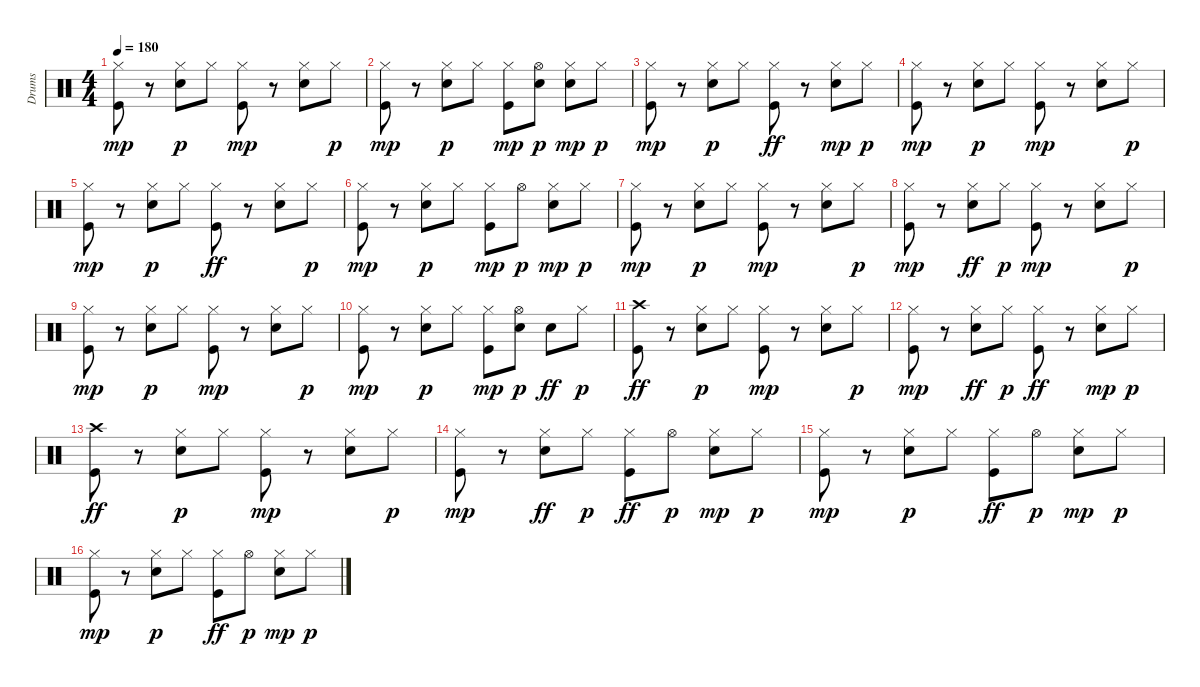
\track ("Drums" "Drums") {instrument percussion}
\staff {score}
\articulation defaults
\ts (4 4)
\tempo 180
\clef neutral
\ks c
("Kick (hit)" "Hi-Hat (closed)").8{dy mp} r.8 ("Snare (hit) 2" "Hi-Hat (closed)").8{dy p} "Hi-Hat (closed)".8 ("Kick (hit)" "Hi-Hat (closed)").8{dy mp} r.8 ("Snare (hit) 2" "Hi-Hat (closed)").8 "Hi-Hat (closed)".8{dy p} |
("Kick (hit)" "Hi-Hat (closed)").8{dy mp} r.8 ("Snare (hit) 2" "Hi-Hat (closed)").8{dy p} "Hi-Hat (closed)".8 ("Kick (hit)" "Hi-Hat (closed)").8{dy mp} ("Hi-Hat (open)" "Snare (hit) 2").8{dy p} ("Snare (hit) 2" "Hi-Hat (closed)").8{dy mp} "Hi-Hat (closed)".8{dy p} |
("Kick (hit)" "Hi-Hat (closed)").8{dy mp} r.8 ("Snare (hit) 2" "Hi-Hat (closed)").8{dy p} "Hi-Hat (closed)".8 ("Hi-Hat (closed)" "Kick (hit)").8{dy ff} r.8 ("Snare (hit) 2" "Hi-Hat (closed)").8{dy mp} "Hi-Hat (closed)".8{dy p} |
("Kick (hit)" "Hi-Hat (closed)").8{dy mp} r.8 ("Snare (hit) 2" "Hi-Hat (closed)").8{dy p} "Hi-Hat (closed)".8 ("Kick (hit)" "Hi-Hat (closed)").8{dy mp} r.8 ("Snare (hit) 2" "Hi-Hat (closed)").8 "Hi-Hat (closed)".8{dy p} |
("Kick (hit)" "Hi-Hat (closed)").8{dy mp} r.8 ("Snare (hit) 2" "Hi-Hat (closed)").8{dy p} "Hi-Hat (closed)".8 ("Hi-Hat (closed)" "Kick (hit)").8{dy ff} r.8 ("Hi-Hat (closed)" "Snare (hit) 2").8 "Hi-Hat (closed)".8{dy p} |
("Kick (hit)" "Hi-Hat (closed)").8{dy mp} r.8 ("Snare (hit) 2" "Hi-Hat (closed)").8{dy p} "Hi-Hat (closed)".8 ("Kick (hit)" "Hi-Hat (closed)").8{dy mp} "Hi-Hat (open)".8{dy p} ("Snare (hit) 2" "Hi-Hat (closed)").8{dy mp} "Hi-Hat (closed)".8{dy p} |
("Kick (hit)" "Hi-Hat (closed)").8{dy mp} r.8 ("Snare (hit) 2" "Hi-Hat (closed)").8{dy p} "Hi-Hat (closed)".8 ("Kick (hit)" "Hi-Hat (closed)").8{dy mp} r.8 ("Snare (hit) 2" "Hi-Hat (closed)").8 "Hi-Hat (closed)".8{dy p} |
("Kick (hit)" "Hi-Hat (closed)").8{dy mp} r.8 ("Hi-Hat (closed)" "Snare (hit) 2").8{dy ff} "Hi-Hat (closed)".8{dy p} ("Kick (hit)" "Hi-Hat (closed)").8{dy mp} r.8 ("Snare (hit) 2" "Hi-Hat (closed)").8 "Hi-Hat (closed)".8{dy p} |
("Kick (hit)" "Hi-Hat (closed)").8{dy mp} r.8 ("Snare (hit) 2" "Hi-Hat (closed)").8{dy p} "Hi-Hat (closed)".8 ("Kick (hit)" "Hi-Hat (closed)").8{dy mp} r.8 ("Snare (hit) 2" "Hi-Hat (closed)").8 "Hi-Hat (closed)".8{dy p} |
("Kick (hit)" "Hi-Hat (closed)").8{dy mp} r.8 ("Snare (hit) 2" "Hi-Hat (closed)").8{dy p} "Hi-Hat (closed)".8 ("Kick (hit)" "Hi-Hat (closed)").8{dy mp} ("Hi-Hat (open)" "Snare (hit) 2").8{dy p} "Snare (hit) 2".8{dy ff} "Hi-Hat (closed)".8{dy p} |
("Crash high (hit)" "Kick (hit)").8{dy ff} r.8 ("Snare (hit) 2" "Hi-Hat (closed)").8{dy p} "Hi-Hat (closed)".8 ("Kick (hit)" "Hi-Hat (closed)").8{dy mp} r.8 ("Snare (hit) 2" "Hi-Hat (closed)").8 "Hi-Hat (closed)".8{dy p} |
("Kick (hit)" "Hi-Hat (closed)").8{dy mp} r.8 ("Hi-Hat (closed)" "Snare (hit) 2").8{dy ff} "Hi-Hat (closed)".8{dy p} ("Hi-Hat (closed)" "Kick (hit)").8{dy ff} r.8 ("Snare (hit) 2" "Hi-Hat (closed)").8{dy mp} "Hi-Hat (closed)".8{dy p} |
("Crash high (hit)" "Kick (hit)").8{dy ff} r.8 ("Snare (hit) 2" "Hi-Hat (closed)").8{dy p} "Hi-Hat (closed)".8 ("Kick (hit)" "Hi-Hat (closed)").8{dy mp} r.8 ("Snare (hit) 2" "Hi-Hat (closed)").8 "Hi-Hat (closed)".8{dy p} |
("Kick (hit)" "Hi-Hat (closed)").8{dy mp} r.8 ("Hi-Hat (closed)" "Snare (hit) 2").8{dy ff} "Hi-Hat (closed)".8{dy p} ("Hi-Hat (closed)" "Kick (hit)").8{dy ff} "Hi-Hat (open)".8{dy p} ("Snare (hit) 2" "Hi-Hat (closed)").8{dy mp} "Hi-Hat (closed)".8{dy p} |
("Kick (hit)" "Hi-Hat (closed)").8{dy mp} r.8 ("Snare (hit) 2" "Hi-Hat (closed)").8{dy p} "Hi-Hat (closed)".8 ("Hi-Hat (closed)" "Kick (hit)").8{dy ff} "Hi-Hat (open)".8{dy p} ("Snare (hit) 2" "Hi-Hat (closed)").8{dy mp} "Hi-Hat (closed)".8{dy p} |
("Kick (hit)" "Hi-Hat (closed)").8{dy mp} r.8 ("Snare (hit) 2" "Hi-Hat (closed)").8{dy p} "Hi-Hat (closed)".8 ("Hi-Hat (closed)" "Kick (hit)").8{dy ff} "Hi-Hat (open)".8{dy p} ("Snare (hit) 2" "Hi-Hat (closed)").8{dy mp} "Hi-Hat (closed)".8{dy p}
